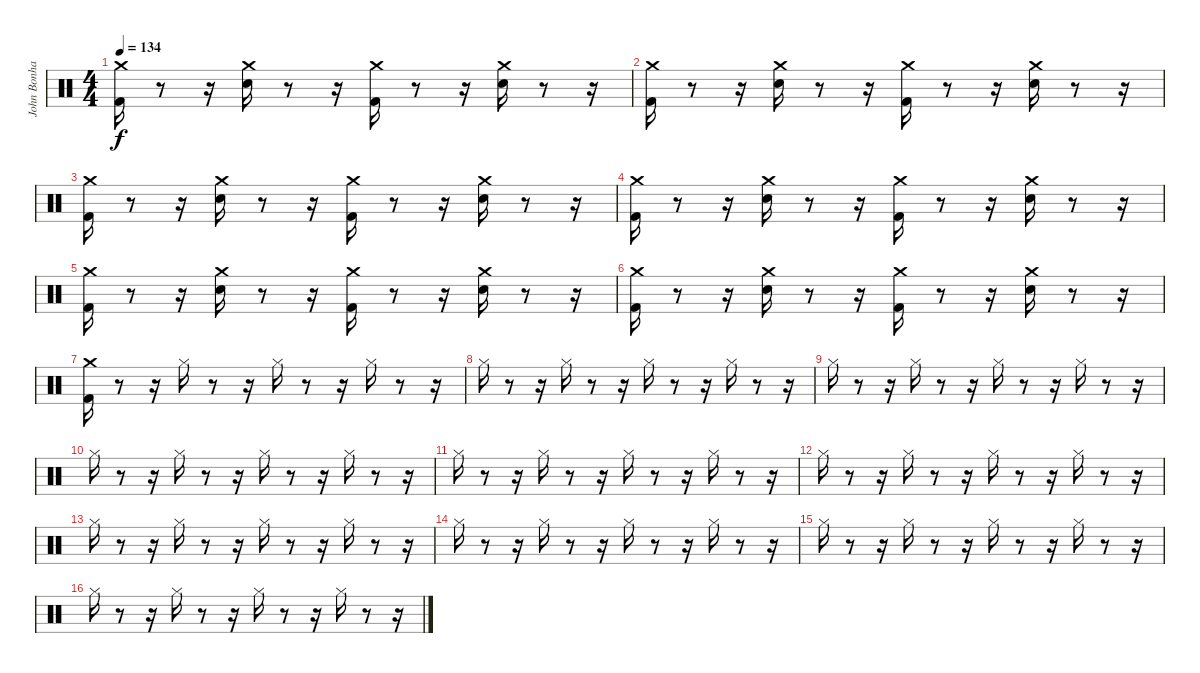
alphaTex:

\track ("John Bonham - Drums" "John Bonha") {instrument percussion}
\staff {score}
\articulation defaults
\ts (4 4)
\tempo 134
\clef neutral
\ks c
("Kick (hit) 2" "Crash medium (hit)").16{dy f} r.8 r.16 ("Snare (hit) 2" "Crash medium (hit)").16 r.8 r.16 ("Kick (hit) 2" "Crash medium (hit)").16 r.8 r.16 ("Snare (hit) 2" "Crash medium (hit)").16 r.8 r.16 |
("Kick (hit) 2" "Crash medium (hit)").16 r.8 r.16 ("Snare (hit) 2" "Crash medium (hit)").16 r.8 r.16 ("Kick (hit) 2" "Crash medium (hit)").16 r.8 r.16 ("Snare (hit) 2" "Crash medium (hit)").16 r.8 r.16 |
("Kick (hit) 2" "Crash medium (hit)").16 r.8 r.16 ("Snare (hit) 2" "Crash medium (hit)").16 r.8 r.16 ("Kick (hit) 2" "Crash medium (hit)").16 r.8 r.16 ("Snare (hit) 2" "Crash medium (hit)").16 r.8 r.16 |
("Kick (hit) 2" "Crash medium (hit)").16 r.8 r.16 ("Snare (hit) 2" "Crash medium (hit)").16 r.8 r.16 ("Kick (hit) 2" "Crash medium (hit)").16 r.8 r.16 ("Snare (hit) 2" "Crash medium (hit)").16 r.8 r.16 |
("Kick (hit) 2" "Crash medium (hit)").16 r.8 r.16 ("Snare (hit) 2" "Crash medium (hit)").16 r.8 r.16 ("Kick (hit) 2" "Crash medium (hit)").16 r.8 r.16 ("Snare (hit) 2" "Crash medium (hit)").16 r.8 r.16 |
("Kick (hit) 2" "Crash medium (hit)").16 r.8 r.16 ("Snare (hit) 2" "Crash medium (hit)").16 r.8 r.16 ("Kick (hit) 2" "Crash medium (hit)").16 r.8 r.16 ("Snare (hit) 2" "Crash medium (hit)").16 r.8 r.16 |
("Kick (hit) 2" "Crash medium (hit)").16 r.8 r.16 "Hi-Hat (closed)".16 r.8 r.16 "Hi-Hat (closed)".16 r.8 r.16 "Hi-Hat (closed)".16 r.8 r.16 |
"Hi-Hat (closed)".16 r.8 r.16 "Hi-Hat (closed)".16 r.8 r.16 "Hi-Hat (closed)".16 r.8 r.16 "Hi-Hat (closed)".16 r.8 r.16 |
"Hi-Hat (closed)".16 r.8 r.16 "Hi-Hat (closed)".16 r.8 r.16 "Hi-Hat (closed)".16 r.8 r.16 "Hi-Hat (closed)".16 r.8 r.16 |
"Hi-Hat (closed)".16 r.8 r.16 "Hi-Hat (closed)".16 r.8 r.16 "Hi-Hat (closed)".16 r.8 r.16 "Hi-Hat (closed)".16 r.8 r.16 |
"Hi-Hat (closed)".16 r.8 r.16 "Hi-Hat (closed)".16 r.8 r.16 "Hi-Hat (closed)".16 r.8 r.16 "Hi-Hat (closed)".16 r.8 r.16 |
"Hi-Hat (closed)".16 r.8 r.16 "Hi-Hat (closed)".16 r.8 r.16 "Hi-Hat (closed)".16 r.8 r.16 "Hi-Hat (closed)".16 r.8 r.16 |
"Hi-Hat (closed)".16 r.8 r.16 "Hi-Hat (closed)".16 r.8 r.16 "Hi-Hat (closed)".16 r.8 r.16 "Hi-Hat (closed)".16 r.8 r.16 |
"Hi-Hat (closed)".16 r.8 r.16 "Hi-Hat (closed)".16 r.8 r.16 "Hi-Hat (closed)".16 r.8 r.16 "Hi-Hat (closed)".16 r.8 r.16 |
"Hi-Hat (closed)".16 r.8 r.16 "Hi-Hat (closed)".16 r.8 r.16 "Hi-Hat (closed)".16 r.8 r.16 "Hi-Hat (closed)".16 r.8 r.16 |
"Hi-Hat (closed)".16 r.8 r.16 "Hi-Hat (closed)".16 r.8 r.16 "Hi-Hat (closed)".16 r.8 r.16 "Hi-Hat (closed)".16 r.8 r.16
